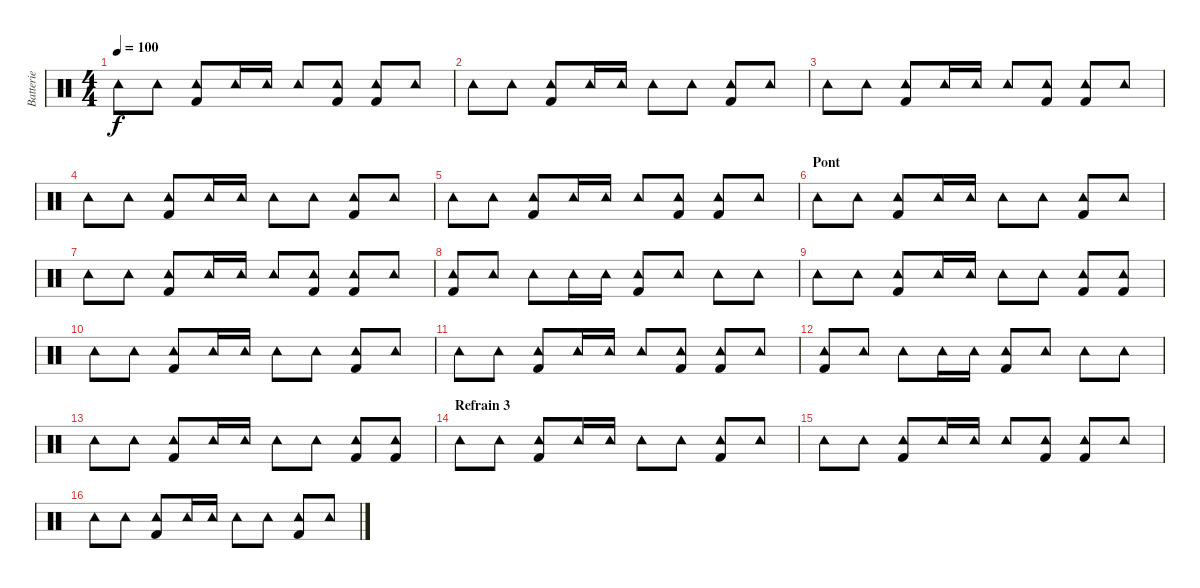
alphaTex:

\track ("Batterie" "Batterie") {instrument percussion}
\staff {score}
\articulation defaults
\ts (4 4)
\tempo 100
\clef neutral
\ks c "Tambourine (hit)".8{dy f} "Tambourine (hit)".8
("Tambourine (hit)" "Kick (hit) 2").8 "Tambourine (hit)".16 "Tambourine (hit)".16 "Tambourine (hit)".8 ("Tambourine (hit)" "Kick (hit) 2").8 ("Tambourine (hit)" "Kick (hit) 2").8 "Tambourine (hit)".8 |
"Tambourine (hit)".8 "Tambourine (hit)".8 ("Tambourine (hit)" "Kick (hit) 2").8 "Tambourine (hit)".16 "Tambourine (hit)".16 "Tambourine (hit)".8 "Tambourine (hit)".8 ("Tambourine (hit)" "Kick (hit) 2").8 "Tambourine (hit)".8 |
"Tambourine (hit)".8 "Tambourine (hit)".8 ("Tambourine (hit)" "Kick (hit) 2").8 "Tambourine (hit)".16 "Tambourine (hit)".16 "Tambourine (hit)".8 ("Tambourine (hit)" "Kick (hit) 2").8 ("Tambourine (hit)" "Kick (hit) 2").8 "Tambourine (hit)".8 |
"Tambourine (hit)".8 "Tambourine (hit)".8 ("Tambourine (hit)" "Kick (hit) 2").8 "Tambourine (hit)".16 "Tambourine (hit)".16 "Tambourine (hit)".8 "Tambourine (hit)".8 ("Tambourine (hit)" "Kick (hit) 2").8 "Tambourine (hit)".8 |
"Tambourine (hit)".8 "Tambourine (hit)".8 ("Tambourine (hit)" "Kick (hit) 2").8 "Tambourine (hit)".16 "Tambourine (hit)".16 "Tambourine (hit)".8 ("Tambourine (hit)" "Kick (hit) 2").8 ("Tambourine (hit)" "Kick (hit) 2").8 "Tambourine (hit)".8 |
\section ("" "Pont")
"Tambourine (hit)".8 "Tambourine (hit)".8 ("Tambourine (hit)" "Kick (hit) 2").8 "Tambourine (hit)".16 "Tambourine (hit)".16 "Tambourine (hit)".8 "Tambourine (hit)".8 ("Tambourine (hit)" "Kick (hit) 2").8 "Tambourine (hit)".8 |
"Tambourine (hit)".8 "Tambourine (hit)".8 ("Tambourine (hit)" "Kick (hit) 2").8 "Tambourine (hit)".16 "Tambourine (hit)".16 "Tambourine (hit)".8 ("Tambourine (hit)" "Kick (hit) 2").8 ("Tambourine (hit)" "Kick (hit) 2").8 "Tambourine (hit)".8 |
("Tambourine (hit)" "Kick (hit) 2").8 "Tambourine (hit)".8 "Tambourine (hit)".8 "Tambourine (hit)".16 "Tambourine (hit)".16 ("Tambourine (hit)" "Kick (hit) 2").8 "Tambourine (hit)".8 "Tambourine (hit)".8 "Tambourine (hit)".8 |
"Tambourine (hit)".8 "Tambourine (hit)".8 ("Tambourine (hit)" "Kick (hit) 2").8 "Tambourine (hit)".16 "Tambourine (hit)".16 "Tambourine (hit)".8 "Tambourine (hit)".8 ("Tambourine (hit)" "Kick (hit) 2").8 ("Tambourine (hit)" "Kick (hit) 2").8 |
"Tambourine (hit)".8 "Tambourine (hit)".8 ("Tambourine (hit)" "Kick (hit) 2").8 "Tambourine (hit)".16 "Tambourine (hit)".16 "Tambourine (hit)".8 "Tambourine (hit)".8 ("Tambourine (hit)" "Kick (hit) 2").8 "Tambourine (hit)".8 |
"Tambourine (hit)".8 "Tambourine (hit)".8 ("Tambourine (hit)" "Kick (hit) 2").8 "Tambourine (hit)".16 "Tambourine (hit)".16 "Tambourine (hit)".8 ("Tambourine (hit)" "Kick (hit) 2").8 ("Tambourine (hit)" "Kick (hit) 2").8 "Tambourine (hit)".8 |
("Tambourine (hit)" "Kick (hit) 2").8 "Tambourine (hit)".8 "Tambourine (hit)".8 "Tambourine (hit)".16 "Tambourine (hit)".16 ("Tambourine (hit)" "Kick (hit) 2").8 "Tambourine (hit)".8 "Tambourine (hit)".8 "Tambourine (hit)".8 |
"Tambourine (hit)".8 "Tambourine (hit)".8 ("Tambourine (hit)" "Kick (hit) 2").8 "Tambourine (hit)".16 "Tambourine (hit)".16 "Tambourine (hit)".8 "Tambourine (hit)".8 ("Tambourine (hit)" "Kick (hit) 2").8 ("Tambourine (hit)" "Kick (hit) 2").8 |
\section ("" "Refrain 3")
"Tambourine (hit)".8 "Tambourine (hit)".8 ("Tambourine (hit)" "Kick (hit) 2").8 "Tambourine (hit)".16 "Tambourine (hit)".16 "Tambourine (hit)".8 "Tambourine (hit)".8 ("Tambourine (hit)" "Kick (hit) 2").8 "Tambourine (hit)".8 |
"Tambourine (hit)".8 "Tambourine (hit)".8 ("Tambourine (hit)" "Kick (hit) 2").8 "Tambourine (hit)".16 "Tambourine (hit)".16 "Tambourine (hit)".8 ("Tambourine (hit)" "Kick (hit) 2").8 ("Tambourine (hit)" "Kick (hit) 2").8 "Tambourine (hit)".8 |
"Tambourine (hit)".8 "Tambourine (hit)".8 ("Tambourine (hit)" "Kick (hit) 2").8 "Tambourine (hit)".16 "Tambourine (hit)".16 "Tambourine (hit)".8 "Tambourine (hit)".8 ("Tambourine (hit)" "Kick (hit) 2").8 "Tambourine (hit)".8
